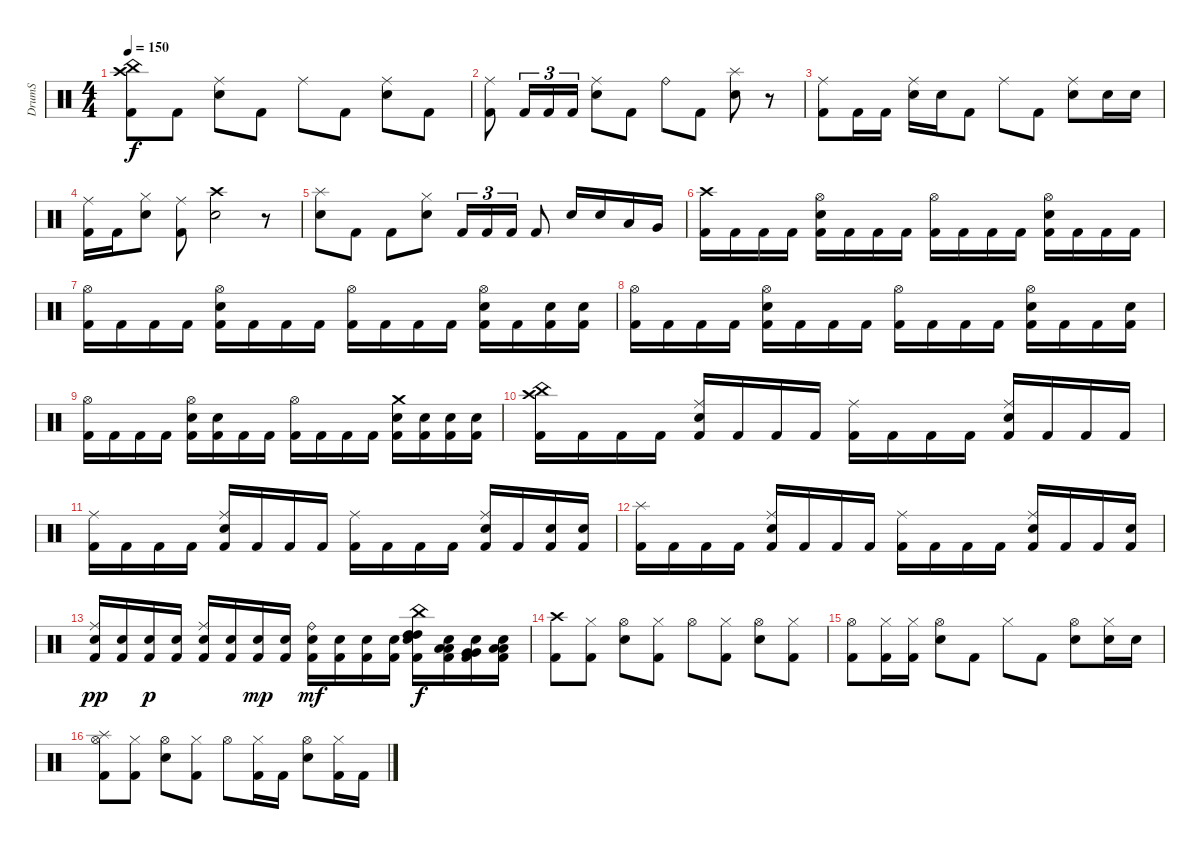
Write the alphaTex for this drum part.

\track ("DrumS" "DrumS") {instrument percussion}
\staff {score}
\articulation defaults
\ts (4 4)
\tempo 150
\clef neutral
\ks c
("Crash high (hit)" "China (hit)" "Kick (hit) 2").8{dy f} "Kick (hit) 2".8 ("Ride (middle)" "Snare (hit) 2").8 "Kick (hit) 2".8 "Ride (middle)".8 "Kick (hit) 2".8 ("Ride (middle)" "Snare (hit) 2").8 "Kick (hit) 2".8 |
("Ride (middle)" "Kick (hit) 2").8 "Kick (hit) 2".16{tu (3 2)} "Kick (hit) 2".16{tu (3 2)} "Kick (hit) 2".16{tu (3 2)} ("Ride (middle)" "Snare (hit) 2").8 "Kick (hit) 2".8 "Ride (bell)".8 "Kick (hit) 2".8 ("Splash (hit)" "Snare (hit) 2").8 r.8 |
("Ride (middle)" "Kick (hit) 2").8 "Kick (hit) 2".16 "Kick (hit) 2".16 ("Ride (middle)" "Snare (hit) 2").16 "Snare (hit) 2".16 "Kick (hit) 2".8 "Ride (middle)".8 "Kick (hit) 2".8 ("Ride (middle)" "Snare (hit) 2").8 "Snare (hit) 2".16 "Snare (hit) 2".16 |
("Ride (middle)" "Kick (hit) 2").16 "Kick (hit) 2".16 ("Hi-Hat (closed)" "Snare (hit) 2").8 ("Ride (middle)" "Kick (hit) 2").8 ("Crash high (hit)" "Snare (hit) 2").2 r.8 |
("Splash (hit)" "Snare (hit) 2").8 "Kick (hit) 2".8 "Kick (hit) 2".8 ("Hi-Hat (closed)" "Snare (hit) 2").8 "Kick (hit) 2".16{tu (3 2)} "Kick (hit) 2".16{tu (3 2)} "Kick (hit) 2".16{tu (3 2)} "Kick (hit) 2".8 "Snare (hit) 2".16 "Snare (hit) 2".16 "Low Tom (hit)".16 "Very Low Tom (hit)".16 |
("Crash high (hit)" "Kick (hit) 2").16 "Kick (hit) 2".16 "Kick (hit) 2".16 "Kick (hit) 2".16 ("Hi-Hat (open)" "Snare (hit) 2" "Kick (hit) 2").16 "Kick (hit) 2".16 "Kick (hit) 2".16 "Kick (hit) 2".16 ("Hi-Hat (open)" "Kick (hit) 2").16 "Kick (hit) 2".16 "Kick (hit) 2".16 "Kick (hit) 2".16 ("Hi-Hat (open)" "Snare (hit) 2" "Kick (hit) 2").16 "Kick (hit) 2".16 "Kick (hit) 2".16 "Kick (hit) 2".16 |
("Hi-Hat (open)" "Kick (hit) 2").16 "Kick (hit) 2".16 "Kick (hit) 2".16 "Kick (hit) 2".16 ("Hi-Hat (open)" "Snare (hit) 2" "Kick (hit) 2").16 "Kick (hit) 2".16 "Kick (hit) 2".16 "Kick (hit) 2".16 ("Hi-Hat (open)" "Kick (hit) 2").16 "Kick (hit) 2".16 "Kick (hit) 2".16 "Kick (hit) 2".16 ("Hi-Hat (open)" "Snare (hit) 2" "Kick (hit) 2").16 "Kick (hit) 2".16 ("Snare (hit) 2" "Kick (hit) 2").16 ("Snare (hit) 2" "Kick (hit) 2").16 |
("Hi-Hat (open)" "Kick (hit) 2").16 "Kick (hit) 2".16 "Kick (hit) 2".16 "Kick (hit) 2".16 ("Hi-Hat (open)" "Snare (hit) 2" "Kick (hit) 2").16 "Kick (hit) 2".16 "Kick (hit) 2".16 "Kick (hit) 2".16 ("Hi-Hat (open)" "Kick (hit) 2").16 "Kick (hit) 2".16 "Kick (hit) 2".16 "Kick (hit) 2".16 ("Hi-Hat (open)" "Snare (hit) 2" "Kick (hit) 2").16 "Kick (hit) 2".16 "Kick (hit) 2".16 ("Snare (hit) 2" "Kick (hit) 2").16 |
("Hi-Hat (open)" "Kick (hit) 2").16 "Kick (hit) 2".16 "Kick (hit) 2".16 "Kick (hit) 2".16 ("Hi-Hat (open)" "Snare (hit) 2" "Kick (hit) 2").16 ("Snare (hit) 2" "Kick (hit) 2").16 "Kick (hit) 2".16 "Kick (hit) 2".16 ("Hi-Hat (open)" "Kick (hit) 2").16 "Kick (hit) 2".16 "Kick (hit) 2".16 "Kick (hit) 2".16 ("Crash medium (hit)" "Snare (hit) 2" "Kick (hit) 2").16 ("Snare (hit) 2" "Kick (hit) 2").16 ("Snare (hit) 2" "Kick (hit) 2").16 ("Snare (hit) 2" "Kick (hit) 2").16 |
("Crash high (hit)" "China (hit)" "Kick (hit) 2").16 "Kick (hit) 2".16 "Kick (hit) 2".16 "Kick (hit) 2".16 ("Ride (middle)" "Snare (hit) 2" "Kick (hit) 2").16 "Kick (hit) 2".16 "Kick (hit) 2".16 "Kick (hit) 2".16 ("Ride (middle)" "Kick (hit) 2").16 "Kick (hit) 2".16 "Kick (hit) 2".16 "Kick (hit) 2".16 ("Ride (middle)" "Snare (hit) 2" "Kick (hit) 2").16 "Kick (hit) 2".16 "Kick (hit) 2".16 "Kick (hit) 2".16 |
("Ride (middle)" "Kick (hit) 2").16 "Kick (hit) 2".16 "Kick (hit) 2".16 "Kick (hit) 2".16 ("Ride (middle)" "Snare (hit) 2" "Kick (hit) 2").16 "Kick (hit) 2".16 "Kick (hit) 2".16 "Kick (hit) 2".16 ("Ride (middle)" "Kick (hit) 2").16 "Kick (hit) 2".16 "Kick (hit) 2".16 "Kick (hit) 2".16 ("Ride (middle)" "Snare (hit) 2" "Kick (hit) 2").16 "Kick (hit) 2".16 ("Snare (hit) 2" "Kick (hit) 2").16 ("Snare (hit) 2" "Kick (hit) 2").16 |
("Splash (hit)" "Kick (hit) 2").16 "Kick (hit) 2".16 "Kick (hit) 2".16 "Kick (hit) 2".16 ("Ride (middle)" "Snare (hit) 2" "Kick (hit) 2").16 "Kick (hit) 2".16 "Kick (hit) 2".16 "Kick (hit) 2".16 ("Ride (middle)" "Kick (hit) 2").16 "Kick (hit) 2".16 "Kick (hit) 2".16 "Kick (hit) 2".16 ("Ride (middle)" "Snare (hit) 2" "Kick (hit) 2").16 "Kick (hit) 2".16 "Kick (hit) 2".16 ("Snare (hit) 2" "Kick (hit) 2").16 |
("Ride (middle)" "Snare (hit) 2" "Kick (hit) 2").16{dy pp} ("Snare (hit) 2" "Kick (hit) 2").16 ("Snare (hit) 2" "Kick (hit) 2").16{dy p} ("Snare (hit) 2" "Kick (hit) 2").16 ("Ride (middle)" "Snare (hit) 2" "Kick (hit) 2").16 ("Snare (hit) 2" "Kick (hit) 2").16 ("Snare (hit) 2" "Kick (hit) 2").16{dy mp} ("Snare (hit) 2" "Kick (hit) 2").16 ("Ride (bell)" "Snare (hit) 2" "Kick (hit) 2").16{dy mf} ("Snare (hit) 2" "Kick (hit) 2").16 ("Snare (hit) 2" "Kick (hit) 2").16 ("Snare (hit) 2" "Kick (hit) 2").16 ("China (hit)" "High Tom (hit)" "High Tom (hit)" "Snare (hit) 2" "Kick (hit) 2").16{dy f} ("Low Tom (hit)" "Low Tom (hit)" "Snare (hit) 2" "Kick (hit) 2").16 ("Very Low Tom (hit)" "Very Low Tom (hit)" "Snare (hit) 2" "Kick (hit) 2").16 ("Low Floor Tom (hit)" "Low Floor Tom (hit)" "Snare (hit) 2" "Kick (hit) 2").16 |
("Crash high (hit)" "Kick (hit) 2").8 ("Hi-Hat (closed)" "Kick (hit) 2").8 ("Hi-Hat (open)" "Snare (hit) 2").8 ("Hi-Hat (closed)" "Kick (hit) 2").8 "Hi-Hat (open)".8 ("Hi-Hat (closed)" "Kick (hit) 2").8 ("Hi-Hat (open)" "Snare (hit) 2").8 ("Hi-Hat (closed)" "Kick (hit) 2").8 |
("Hi-Hat (open)" "Kick (hit) 2").8 ("Hi-Hat (closed)" "Kick (hit) 2").16 ("Hi-Hat (closed)" "Kick (hit) 2").16 ("Hi-Hat (open)" "Snare (hit) 2").8 "Kick (hit) 2".8 "Hi-Hat (closed)".8 "Kick (hit) 2".8 ("Hi-Hat (open)" "Snare (hit) 2").8 ("Hi-Hat (closed)" "Snare (hit) 2").16 "Snare (hit) 2".16 |
("Splash (hit)" "Hi-Hat (open)" "Kick (hit) 2").8 ("Hi-Hat (closed)" "Kick (hit) 2").8 ("Hi-Hat (open)" "Snare (hit) 2").8 ("Hi-Hat (closed)" "Kick (hit) 2").8 "Hi-Hat (open)".8 ("Hi-Hat (closed)" "Kick (hit) 2").16 "Kick (hit) 2".16 ("Hi-Hat (open)" "Snare (hit) 2").8 ("Hi-Hat (closed)" "Kick (hit) 2").16 "Kick (hit) 2".16
